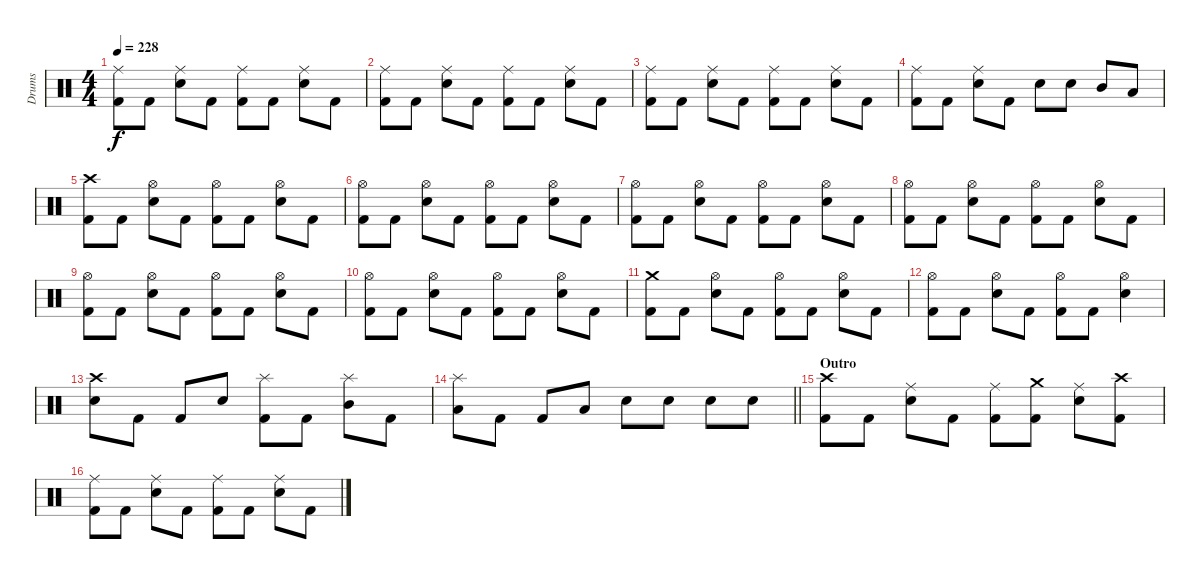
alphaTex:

\track ("Drums" "Drums") {instrument percussion}
\staff {score}
\articulation defaults
\ts (4 4)
\tempo 228
\clef neutral
\ks c
("Ride (middle)" "Kick (hit) 2").8{dy f} "Kick (hit) 2".8 ("Ride (middle)" "Snare (hit) 2").8 "Kick (hit) 2".8 ("Ride (middle)" "Kick (hit) 2").8 "Kick (hit) 2".8 ("Ride (middle)" "Snare (hit) 2").8 "Kick (hit) 2".8 |
("Ride (middle)" "Kick (hit) 2").8 "Kick (hit) 2".8 ("Ride (middle)" "Snare (hit) 2").8 "Kick (hit) 2".8 ("Ride (middle)" "Kick (hit) 2").8 "Kick (hit) 2".8 ("Ride (middle)" "Snare (hit) 2").8 "Kick (hit) 2".8 |
("Ride (middle)" "Kick (hit) 2").8 "Kick (hit) 2".8 ("Ride (middle)" "Snare (hit) 2").8 "Kick (hit) 2".8 ("Ride (middle)" "Kick (hit) 2").8 "Kick (hit) 2".8 ("Ride (middle)" "Snare (hit) 2").8 "Kick (hit) 2".8 |
("Ride (middle)" "Kick (hit) 2").8 "Kick (hit) 2".8 ("Ride (middle)" "Snare (hit) 2").8 "Kick (hit) 2".8 "Snare (hit) 2".8 "Snare (hit) 2".8 "Mid Tom (hit)".8 "Low Tom (hit)".8 |
("Crash high (hit)" "Kick (hit) 2").8 "Kick (hit) 2".8 ("Hi-Hat (open)" "Snare (hit) 2").8 "Kick (hit) 2".8 ("Hi-Hat (open)" "Kick (hit) 2").8 "Kick (hit) 2".8 ("Hi-Hat (open)" "Snare (hit) 2").8 "Kick (hit) 2".8 |
("Hi-Hat (open)" "Kick (hit) 2").8 "Kick (hit) 2".8 ("Hi-Hat (open)" "Snare (hit) 2").8 "Kick (hit) 2".8 ("Hi-Hat (open)" "Kick (hit) 2").8 "Kick (hit) 2".8 ("Hi-Hat (open)" "Snare (hit) 2").8 "Kick (hit) 2".8 |
("Hi-Hat (open)" "Kick (hit) 2").8 "Kick (hit) 2".8 ("Hi-Hat (open)" "Snare (hit) 2").8 "Kick (hit) 2".8 ("Hi-Hat (open)" "Kick (hit) 2").8 "Kick (hit) 2".8 ("Hi-Hat (open)" "Snare (hit) 2").8 "Kick (hit) 2".8 |
("Hi-Hat (open)" "Kick (hit) 2").8 "Kick (hit) 2".8 ("Hi-Hat (open)" "Snare (hit) 2").8 "Kick (hit) 2".8 ("Hi-Hat (open)" "Kick (hit) 2").8 "Kick (hit) 2".8 ("Hi-Hat (open)" "Snare (hit) 2").8 "Kick (hit) 2".8 |
("Hi-Hat (open)" "Kick (hit) 2").8 "Kick (hit) 2".8 ("Hi-Hat (open)" "Snare (hit) 2").8 "Kick (hit) 2".8 ("Hi-Hat (open)" "Kick (hit) 2").8 "Kick (hit) 2".8 ("Hi-Hat (open)" "Snare (hit) 2").8 "Kick (hit) 2".8 |
("Hi-Hat (open)" "Kick (hit) 2").8 "Kick (hit) 2".8 ("Hi-Hat (open)" "Snare (hit) 2").8 "Kick (hit) 2".8 ("Hi-Hat (open)" "Kick (hit) 2").8 "Kick (hit) 2".8 ("Hi-Hat (open)" "Snare (hit) 2").8 "Kick (hit) 2".8 |
("Crash medium (hit)" "Kick (hit) 2").8 "Kick (hit) 2".8 ("Hi-Hat (open)" "Snare (hit) 2").8 "Kick (hit) 2".8 ("Hi-Hat (open)" "Kick (hit) 2").8 "Kick (hit) 2".8 ("Hi-Hat (open)" "Snare (hit) 2").8 "Kick (hit) 2".8 |
("Hi-Hat (open)" "Kick (hit) 2").8 "Kick (hit) 2".8 ("Hi-Hat (open)" "Snare (hit) 2").8 "Kick (hit) 2".8 ("Hi-Hat (open)" "Kick (hit) 2").8 "Kick (hit) 2".8 ("Hi-Hat (open)" "Snare (hit) 2").4 |
("Crash high (hit)" "Snare (hit) 2").8 "Kick (hit) 2".8 "Kick (hit) 2".8 "Snare (hit) 2".8 ("Splash (hit)" "Kick (hit) 2").8 "Kick (hit) 2".8 ("Splash (hit)" "Mid Tom (hit)").8 "Kick (hit) 2".8 |
\barLineRight lightlight
("Splash (hit)" "Low Tom (hit)").8 "Kick (hit) 2".8 "Kick (hit) 2".8 "Low Tom (hit)".8 "Snare (hit) 2".8 "Snare (hit) 2".8 "Snare (hit) 2".8 "Snare (hit) 2".8 |
\section ("" "Outro")
("Crash high (hit)" "Kick (hit) 2").8 "Kick (hit) 2".8 ("Ride (middle)" "Snare (hit) 2").8 "Kick (hit) 2".8 ("Ride (middle)" "Kick (hit) 2").8 ("Crash medium (hit)" "Kick (hit) 2").8 ("Ride (middle)" "Snare (hit) 2").8 ("Crash high (hit)" "Kick (hit) 2").8 |
("Ride (middle)" "Kick (hit) 2").8 "Kick (hit) 2".8 ("Ride (middle)" "Snare (hit) 2").8 "Kick (hit) 2".8 ("Ride (middle)" "Kick (hit) 2").8 "Kick (hit) 2".8 ("Ride (middle)" "Snare (hit) 2").8 "Kick (hit) 2".8
